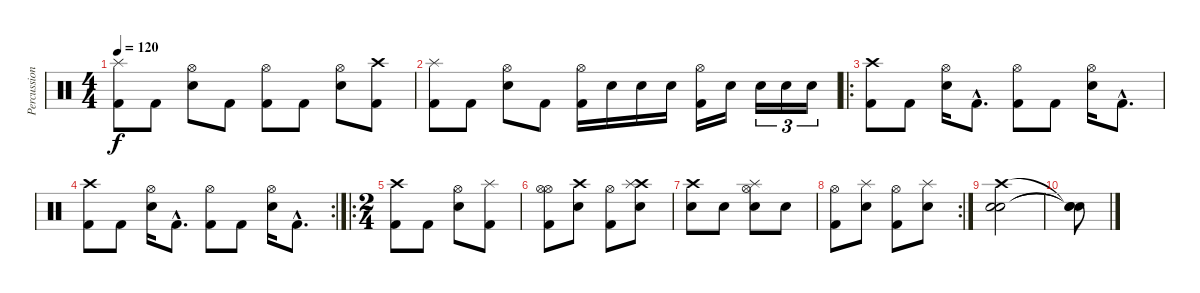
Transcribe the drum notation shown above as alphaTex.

\track ("Percussion" "Percussion") {instrument percussion}
\staff {score}
\articulation defaults
\ts (4 4)
\tempo 120
\clef neutral
\ks c
("Splash (hit)" "Kick (hit) 2").8{dy f} "Kick (hit) 2".8 ("Hi-Hat (open)" "Electric Snare (hit)").8 "Kick (hit) 2".8 ("Hi-Hat (open)" "Kick (hit) 2").8 "Kick (hit) 2".8 ("Hi-Hat (open)" "Electric Snare (hit)").8 ("Crash high (hit)" "Kick (hit) 2").8 |
("Splash (hit)" "Kick (hit) 2").8 "Kick (hit) 2".8 ("Hi-Hat (open)" "Electric Snare (hit)").8 "Kick (hit) 2".8 ("Hi-Hat (open)" "Kick (hit) 2").16 "Electric Snare (hit)".16 "Electric Snare (hit)".16 "Electric Snare (hit)".16 ("Hi-Hat (open)" "Kick (hit) 2").16 "Electric Snare (hit)".16 "Electric Snare (hit)".16{tu (3 2)} "Electric Snare (hit)".16{tu (3 2)} "Electric Snare (hit)".16{tu (3 2)} |
\ro
("Crash high (hit)" "Kick (hit) 2").8 "Kick (hit) 2".8 ("Hi-Hat (open)" "Electric Snare (hit)").16 "Kick (hit) 2"{hac}.8{d} ("Hi-Hat (open)" "Kick (hit) 2").8 "Kick (hit) 2".8 ("Hi-Hat (open)" "Electric Snare (hit)").16 "Kick (hit) 2"{hac}.8{d} |
\rc 2
("Crash high (hit)" "Kick (hit) 2").8 "Kick (hit) 2".8 ("Hi-Hat (open)" "Electric Snare (hit)").16 "Kick (hit) 2"{hac}.8{d} ("Hi-Hat (open)" "Kick (hit) 2").8 "Kick (hit) 2".8 ("Hi-Hat (open)" "Electric Snare (hit)").16 "Kick (hit) 2"{hac}.8{d} |
\ro
\ts (2 4)
("Crash high (hit)" "Kick (hit) 2").8 "Kick (hit) 2".8 ("Hi-Hat (open)" "Electric Snare (hit)").8 ("Kick (hit) 2" "Splash (hit)").8 |
("Hi-Hat (open)" "Kick (hit) 2" "Hi-Hat (open)").8 ("Crash high (hit)" "Electric Snare (hit)").8 ("Hi-Hat (open)" "Kick (hit) 2").8 ("Crash high (hit)" "Electric Snare (hit)" "Splash (hit)").8 |
("Crash high (hit)" "Electric Snare (hit)").8 "Electric Snare (hit)".8 ("Hi-Hat (open)" "Electric Snare (hit)" "Splash (hit)").8 "Electric Snare (hit)".8 |
\rc 2
("Hi-Hat (open)" "Kick (hit) 2").8 ("Electric Snare (hit)" "Splash (hit)").8 ("Hi-Hat (open)" "Kick (hit) 2").8 ("Electric Snare (hit)" "Splash (hit)").8 |
("Crash high (hit)" "Snare (hit) 2" "Electric Snare (hit)").2 |
("Snare (hit)"{t} "Snare (hit)"{t} "Snare (hit)"{t}).8
